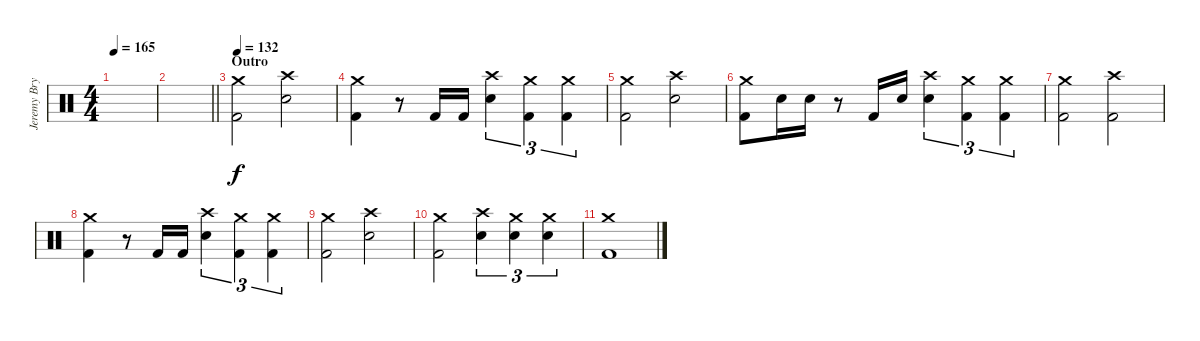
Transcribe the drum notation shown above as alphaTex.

\track ("Jeremy Bryan - Drums" "Jeremy Bry") {instrument percussion}
\staff {score}
\articulation defaults
\ts (4 4)
\tempo 165
\clef neutral
\ks c
|
\barLineRight lightlight
|
\section ("" "Outro")
\tempo 132
("Crash medium (hit)" "Kick (hit) 2").2 ("Crash high (hit)" "Electric Snare (hit)").2 |
("Crash medium (hit)" "Kick (hit) 2").4 r.8 "Kick (hit) 2".16 "Kick (hit) 2".16 ("Crash high (hit)" "Electric Snare (hit)").4{tu (3 2)} ("Crash medium (hit)" "Kick (hit) 2").4{tu (3 2)} ("Crash medium (hit)" "Kick (hit) 2").4{tu (3 2)} |
("Crash medium (hit)" "Kick (hit) 2").2 ("Crash high (hit)" "Electric Snare (hit)").2 |
("Crash medium (hit)" "Kick (hit) 2").8 "Electric Snare (hit)".16 "Electric Snare (hit)".16 r.8 "Kick (hit) 2".16 "Electric Snare (hit)".16 ("Crash high (hit)" "Electric Snare (hit)").4{tu (3 2)} ("Crash medium (hit)" "Kick (hit) 2").4{tu (3 2)} ("Crash medium (hit)" "Kick (hit) 2").4{tu (3 2)} |
("Crash medium (hit)" "Kick (hit) 2").2 ("Crash high (hit)" "Kick (hit) 2").2 |
("Crash medium (hit)" "Kick (hit) 2").4 r.8 "Kick (hit) 2".16 "Kick (hit) 2".16 ("Crash high (hit)" "Electric Snare (hit)").4{tu (3 2)} ("Crash medium (hit)" "Kick (hit) 2").4{tu (3 2)} ("Crash medium (hit)" "Kick (hit) 2").4{tu (3 2)} |
("Crash medium (hit)" "Kick (hit) 2").2 ("Crash high (hit)" "Electric Snare (hit)").2 |
("Crash medium (hit)" "Kick (hit) 2").2 ("Crash high (hit)" "Electric Snare (hit)").4{tu (3 2)} ("Crash medium (hit)" "Electric Snare (hit)").4{tu (3 2)} ("Crash medium (hit)" "Electric Snare (hit)").4{tu (3 2)} |
("Crash medium (hit)" "Kick (hit) 2").1
